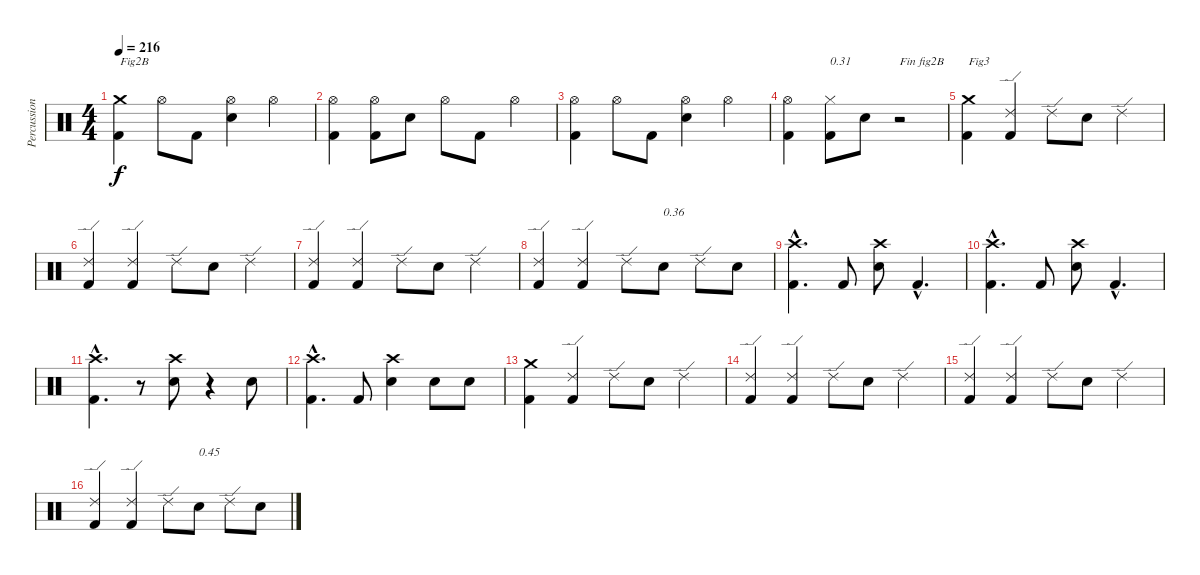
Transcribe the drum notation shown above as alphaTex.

\track ("Percussion" "Percussion") {instrument percussion}
\staff {score}
\articulation defaults
\ts (4 4)
\tempo 216
\clef neutral
\ks c
("Kick (hit) 2" "Crash medium (hit)").4{txt "Fig2B" dy f} "Hi-Hat (open)".8 "Kick (hit) 2".8 ("Electric Snare (hit)" "Hi-Hat (open)").4 "Hi-Hat (open)".4 |
("Kick (hit) 2" "Hi-Hat (open)").4 ("Kick (hit) 2" "Hi-Hat (open)").8 "Electric Snare (hit)".8 "Hi-Hat (open)".8 "Kick (hit) 2".8 "Hi-Hat (open)".4 |
("Kick (hit) 2" "Hi-Hat (open)").4 "Hi-Hat (open)".8 "Kick (hit) 2".8 ("Electric Snare (hit)" "Hi-Hat (open)").4 "Hi-Hat (open)".4 |
("Kick (hit) 2" "Hi-Hat (open)").4 ("Kick (hit) 2" "Hi-Hat (closed)").8{txt "0.31"} "Electric Snare (hit)".8 r.2{txt "Fin fig2B"} |
("Kick (hit) 2" "Crash medium (hit)").4{txt "Fig3"} ("Kick (hit) 2" "Ride (edge) 2").4 "Ride (edge) 2".8 "Electric Snare (hit)".8 "Ride (edge) 2".4 |
("Kick (hit) 2" "Ride (edge) 2").4 ("Kick (hit) 2" "Ride (edge) 2").4 "Ride (edge) 2".8 "Electric Snare (hit)".8 "Ride (edge) 2".4 |
("Kick (hit) 2" "Ride (edge) 2").4 ("Kick (hit) 2" "Ride (edge) 2").4 "Ride (edge) 2".8 "Electric Snare (hit)".8 "Ride (edge) 2".4 |
("Kick (hit) 2" "Ride (edge) 2").4 ("Kick (hit) 2" "Ride (edge) 2").4 "Ride (edge) 2".8 "Electric Snare (hit)".8{txt "0.36"} "Ride (edge) 2".8 "Electric Snare (hit)".8 |
("Kick (hit) 2"{hac} "Crash high (hit)"{hac}).4{d} "Kick (hit) 2".8 ("Electric Snare (hit)" "Crash high (hit)").8 "Kick (hit) 2"{hac}.4{d} |
("Kick (hit) 2"{hac} "Crash high (hit)"{hac}).4{d} "Kick (hit) 2".8 ("Electric Snare (hit)" "Crash high (hit)").8 "Kick (hit) 2"{hac}.4{d} |
("Kick (hit) 2"{hac} "Crash high (hit)"{hac}).4{d} r.8 ("Electric Snare (hit)" "Crash high (hit)").8 r.4 "Electric Snare (hit)".8 |
("Kick (hit) 2"{hac} "Crash high (hit)"{hac}).4{d} "Kick (hit) 2".8 ("Electric Snare (hit)" "Crash high (hit)").4 "Electric Snare (hit)".8 "Electric Snare (hit)".8 |
("Kick (hit) 2" "Crash medium (hit)").4 ("Kick (hit) 2" "Ride (edge) 2").4 "Ride (edge) 2".8 "Electric Snare (hit)".8 "Ride (edge) 2".4 |
("Kick (hit) 2" "Ride (edge) 2").4 ("Kick (hit) 2" "Ride (edge) 2").4 "Ride (edge) 2".8 "Electric Snare (hit)".8 "Ride (edge) 2".4 |
("Kick (hit) 2" "Ride (edge) 2").4 ("Kick (hit) 2" "Ride (edge) 2").4 "Ride (edge) 2".8 "Electric Snare (hit)".8 "Ride (edge) 2".4 |
("Kick (hit) 2" "Ride (edge) 2").4 ("Kick (hit) 2" "Ride (edge) 2").4 "Ride (edge) 2".8 "Electric Snare (hit)".8{txt "0.45"} "Ride (edge) 2".8 "Electric Snare (hit)".8
